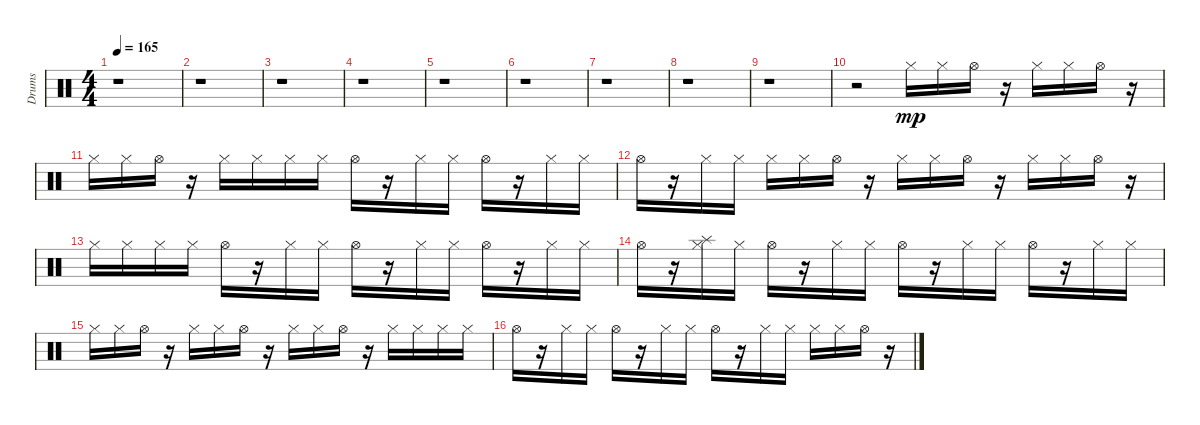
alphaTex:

\track ("Drums" "Drums") {instrument percussion}
\staff {score}
\articulation defaults
\ts (4 4)
\tempo 165
\clef neutral
\ks c
r.1{dy f} |
r.1 |
r.1 |
r.1 |
r.1 |
r.1 |
r.1 |
r.1 |
r.1 |
r.2 "Hi-Hat (closed)".16{dy mp} "Hi-Hat (closed)".16 "Hi-Hat (open)".16 r.16 "Hi-Hat (closed)".16 "Hi-Hat (closed)".16 "Hi-Hat (open)".16 r.16 |
"Hi-Hat (closed)".16 "Hi-Hat (closed)".16 "Hi-Hat (open)".16 r.16 "Hi-Hat (closed)".16 "Hi-Hat (closed)".16 "Hi-Hat (closed)".16 "Hi-Hat (closed)".16 "Hi-Hat (open)".16 r.16 "Hi-Hat (closed)".16 "Hi-Hat (closed)".16 "Hi-Hat (open)".16 r.16 "Hi-Hat (closed)".16 "Hi-Hat (closed)".16 |
"Hi-Hat (open)".16 r.16 "Hi-Hat (closed)".16 "Hi-Hat (closed)".16 "Hi-Hat (closed)".16 "Hi-Hat (closed)".16 "Hi-Hat (open)".16 r.16 "Hi-Hat (closed)".16 "Hi-Hat (closed)".16 "Hi-Hat (open)".16 r.16 "Hi-Hat (closed)".16 "Hi-Hat (closed)".16 "Hi-Hat (open)".16 r.16 |
"Hi-Hat (closed)".16 "Hi-Hat (closed)".16 "Hi-Hat (closed)".16 "Hi-Hat (closed)".16 "Hi-Hat (open)".16 r.16 "Hi-Hat (closed)".16 "Hi-Hat (closed)".16 "Hi-Hat (open)".16 r.16 "Hi-Hat (closed)".16 "Hi-Hat (closed)".16 "Hi-Hat (open)".16 r.16 "Hi-Hat (closed)".16 "Hi-Hat (closed)".16 |
"Hi-Hat (open)".16 r.16 ("Splash (hit)" "Hi-Hat (closed)").16 "Hi-Hat (closed)".16 "Hi-Hat (open)".16 r.16 "Hi-Hat (closed)".16 "Hi-Hat (closed)".16 "Hi-Hat (open)".16 r.16 "Hi-Hat (closed)".16 "Hi-Hat (closed)".16 "Hi-Hat (open)".16 r.16 "Hi-Hat (closed)".16 "Hi-Hat (closed)".16 |
"Hi-Hat (closed)".16 "Hi-Hat (closed)".16 "Hi-Hat (open)".16 r.16 "Hi-Hat (closed)".16 "Hi-Hat (closed)".16 "Hi-Hat (open)".16 r.16 "Hi-Hat (closed)".16 "Hi-Hat (closed)".16 "Hi-Hat (open)".16 r.16 "Hi-Hat (closed)".16 "Hi-Hat (closed)".16 "Hi-Hat (closed)".16 "Hi-Hat (closed)".16 |
"Hi-Hat (open)".16 r.16 "Hi-Hat (closed)".16 "Hi-Hat (closed)".16 "Hi-Hat (open)".16 r.16 "Hi-Hat (closed)".16 "Hi-Hat (closed)".16 "Hi-Hat (open)".16 r.16 "Hi-Hat (closed)".16 "Hi-Hat (closed)".16 "Hi-Hat (closed)".16 "Hi-Hat (closed)".16 "Hi-Hat (open)".16 r.16
